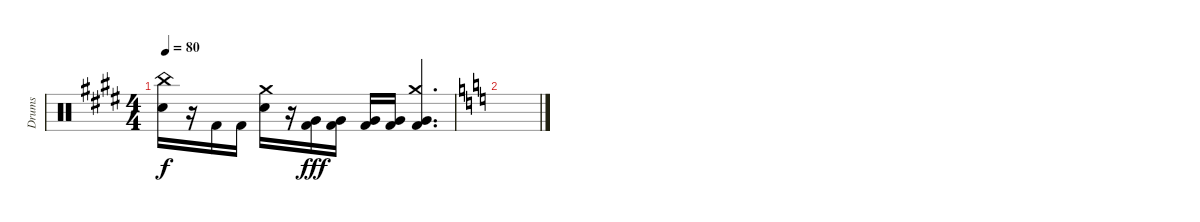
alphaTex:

\track ("Drums" "Drums") {instrument percussion}
\staff {score}
\articulation defaults
\ts (4 4)
\tempo 80
\clef neutral
\ks e
("China (hit)" "Snare (hit) 2").16{dy f} r.16 "Kick (hit) 2".16 "Kick (hit) 2".16 ("Crash medium (hit)" "Snare (hit) 2").16 r.16 ("Very Low Tom (hit)" "Kick (hit) 2").16{dy fff} ("Very Low Tom (hit)" "Kick (hit) 2").16 ("Very Low Tom (hit)" "Kick (hit) 2").16 ("Very Low Tom (hit)" "Kick (hit) 2").16 ("Crash medium (hit)" "Very Low Tom (hit)" "Kick (hit) 2").4{d} |
\ks c
